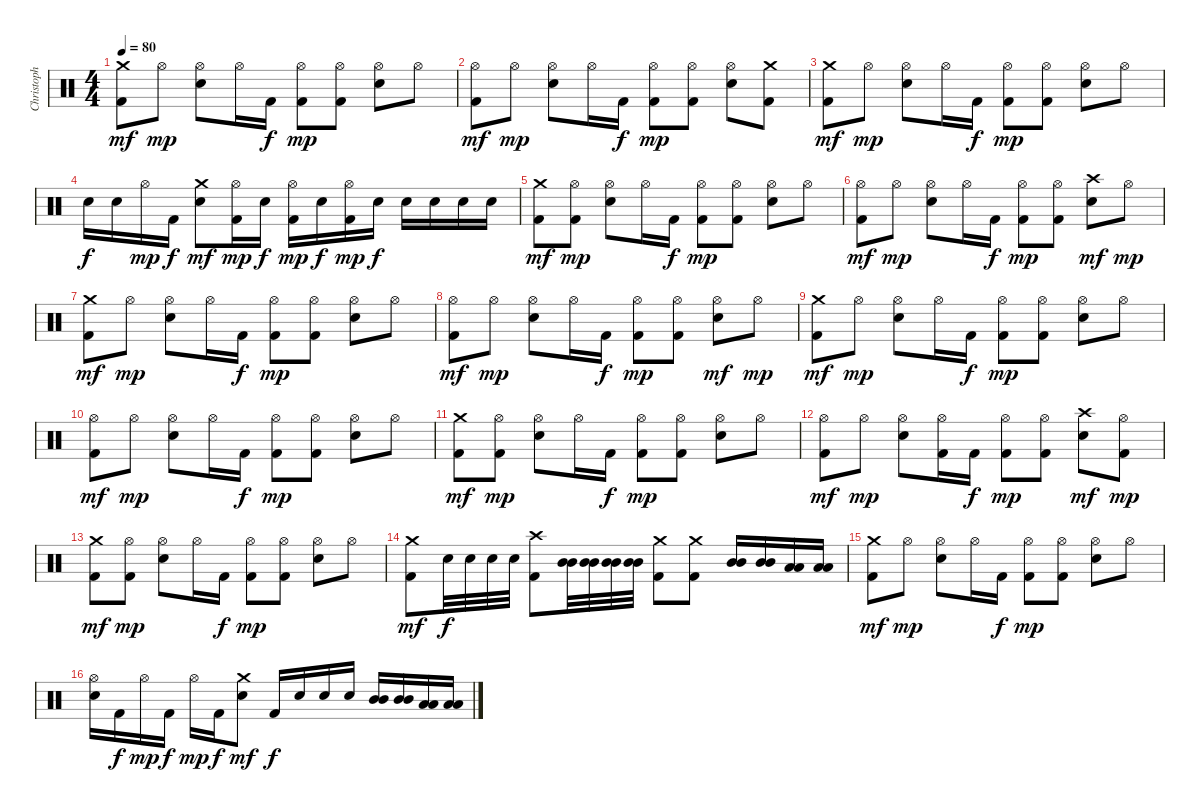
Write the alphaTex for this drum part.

\track ("Christoph Schneider // Drums" "Christoph ") {instrument percussion}
\staff {score}
\articulation defaults
\ts (4 4)
\tempo 80
\clef neutral
\ks c
("Crash medium (hit)" "Kick (hit) 2").8{dy mf} "Hi-Hat (open)".8{dy mp} ("Hi-Hat (open)" "Snare (hit) 2").8 "Hi-Hat (open)".16 "Kick (hit) 2".16{dy f} ("Hi-Hat (open)" "Kick (hit) 2").8{dy mp} ("Hi-Hat (open)" "Kick (hit) 2").8 ("Hi-Hat (open)" "Snare (hit) 2").8 "Hi-Hat (open)".8 |
("Hi-Hat (open)" "Kick (hit) 2").8{dy mf} "Hi-Hat (open)".8{dy mp} ("Hi-Hat (open)" "Snare (hit) 2").8 "Hi-Hat (open)".16 "Kick (hit) 2".16{dy f} ("Hi-Hat (open)" "Kick (hit) 2").8{dy mp} ("Hi-Hat (open)" "Kick (hit) 2").8 ("Hi-Hat (open)" "Snare (hit) 2").8 ("Crash medium (hit)" "Kick (hit) 2").8 |
("Crash medium (hit)" "Kick (hit) 2").8{dy mf} "Hi-Hat (open)".8{dy mp} ("Hi-Hat (open)" "Snare (hit) 2").8 "Hi-Hat (open)".16 "Kick (hit) 2".16{dy f} ("Hi-Hat (open)" "Kick (hit) 2").8{dy mp} ("Hi-Hat (open)" "Kick (hit) 2").8 ("Hi-Hat (open)" "Snare (hit) 2").8 "Hi-Hat (open)".8 |
"Snare (hit) 2".16{dy f} "Snare (hit) 2".16 "Hi-Hat (open)".16{dy mp} "Kick (hit) 2".16{dy f} ("Crash medium (hit)" "Snare (hit) 2").8{dy mf} ("Hi-Hat (open)" "Kick (hit) 2").16{dy mp} "Snare (hit) 2".16{dy f} ("Hi-Hat (open)" "Kick (hit) 2").16{dy mp} "Snare (hit) 2".16{dy f} ("Hi-Hat (open)" "Kick (hit) 2").16{dy mp} "Snare (hit) 2".16{dy f} "Snare (hit) 2".16 "Snare (hit) 2".16 "Snare (hit) 2".16 "Snare (hit) 2".16 |
("Crash medium (hit)" "Kick (hit) 2").8{dy mf} ("Hi-Hat (open)" "Kick (hit) 2").8{dy mp} ("Hi-Hat (open)" "Snare (hit) 2").8 "Hi-Hat (open)".16 "Kick (hit) 2".16{dy f} ("Hi-Hat (open)" "Kick (hit) 2").8{dy mp} ("Hi-Hat (open)" "Kick (hit) 2").8 ("Hi-Hat (open)" "Snare (hit) 2").8 "Hi-Hat (open)".8 |
("Hi-Hat (open)" "Kick (hit) 2").8{dy mf} "Hi-Hat (open)".8{dy mp} ("Hi-Hat (open)" "Snare (hit) 2").8 "Hi-Hat (open)".16 "Kick (hit) 2".16{dy f} ("Hi-Hat (open)" "Kick (hit) 2").8{dy mp} ("Hi-Hat (open)" "Kick (hit) 2").8 ("Crash high (hit)" "Snare (hit) 2").8{dy mf} "Hi-Hat (open)".8{dy mp} |
("Crash medium (hit)" "Kick (hit) 2").8{dy mf} "Hi-Hat (open)".8{dy mp} ("Hi-Hat (open)" "Snare (hit) 2").8 "Hi-Hat (open)".16 "Kick (hit) 2".16{dy f} ("Hi-Hat (open)" "Kick (hit) 2").8{dy mp} ("Hi-Hat (open)" "Kick (hit) 2").8 ("Hi-Hat (open)" "Snare (hit) 2").8 "Hi-Hat (open)".8 |
("Hi-Hat (open)" "Kick (hit) 2").8{dy mf} "Hi-Hat (open)".8{dy mp} ("Hi-Hat (open)" "Snare (hit) 2").8 "Hi-Hat (open)".16 "Kick (hit) 2".16{dy f} ("Hi-Hat (open)" "Kick (hit) 2").8{dy mp} ("Hi-Hat (open)" "Kick (hit) 2").8 ("Hi-Hat (open)" "Snare (hit) 2").8{dy mf} "Hi-Hat (open)".8{dy mp} |
("Crash medium (hit)" "Kick (hit) 2").8{dy mf} "Hi-Hat (open)".8{dy mp} ("Hi-Hat (open)" "Snare (hit) 2").8 "Hi-Hat (open)".16 "Kick (hit) 2".16{dy f} ("Hi-Hat (open)" "Kick (hit) 2").8{dy mp} ("Hi-Hat (open)" "Kick (hit) 2").8 ("Hi-Hat (open)" "Snare (hit) 2").8 "Hi-Hat (open)".8 |
("Hi-Hat (open)" "Kick (hit) 2").8{dy mf} "Hi-Hat (open)".8{dy mp} ("Hi-Hat (open)" "Snare (hit) 2").8 "Hi-Hat (open)".16 "Kick (hit) 2".16{dy f} ("Hi-Hat (open)" "Kick (hit) 2").8{dy mp} ("Hi-Hat (open)" "Kick (hit) 2").8 ("Hi-Hat (open)" "Snare (hit) 2").8 "Hi-Hat (open)".8 |
("Crash medium (hit)" "Kick (hit) 2").8{dy mf} ("Hi-Hat (open)" "Kick (hit) 2").8{dy mp} ("Hi-Hat (open)" "Snare (hit) 2").8 "Hi-Hat (open)".16 "Kick (hit) 2".16{dy f} ("Hi-Hat (open)" "Kick (hit) 2").8{dy mp} ("Hi-Hat (open)" "Kick (hit) 2").8 ("Hi-Hat (open)" "Snare (hit) 2").8 "Hi-Hat (open)".8 |
("Hi-Hat (open)" "Kick (hit) 2").8{dy mf} "Hi-Hat (open)".8{dy mp} ("Hi-Hat (open)" "Snare (hit) 2").8 ("Hi-Hat (open)" "Kick (hit) 2").16 "Kick (hit) 2".16{dy f} ("Hi-Hat (open)" "Kick (hit) 2").8{dy mp} ("Hi-Hat (open)" "Kick (hit) 2").8 ("Crash high (hit)" "Snare (hit) 2").8{dy mf} ("Hi-Hat (open)" "Kick (hit) 2").8{dy mp} |
("Crash medium (hit)" "Kick (hit) 2").8{dy mf} ("Hi-Hat (open)" "Kick (hit) 2").8{dy mp} ("Hi-Hat (open)" "Snare (hit) 2").8 "Hi-Hat (open)".16 "Kick (hit) 2".16{dy f} ("Hi-Hat (open)" "Kick (hit) 2").8{dy mp} ("Hi-Hat (open)" "Kick (hit) 2").8 ("Hi-Hat (open)" "Snare (hit) 2").8 "Hi-Hat (open)".8 |
("Crash medium (hit)" "Kick (hit) 2").8{dy mf} "Snare (hit) 2".32{dy f} "Snare (hit) 2".32 "Snare (hit) 2".32 "Snare (hit) 2".32 ("Crash high (hit)" "Kick (hit) 2").8 ("Mid Tom (hit)" "Mid Tom (hit)").32 ("Mid Tom (hit)" "Mid Tom (hit)").32 ("Mid Tom (hit)" "Mid Tom (hit)").32 ("Mid Tom (hit)" "Mid Tom (hit)").32 ("Crash medium (hit)" "Kick (hit) 2").8 ("Crash medium (hit)" "Kick (hit) 2").8 ("Mid Tom (hit)" "Mid Tom (hit)").16 ("Mid Tom (hit)" "Mid Tom (hit)").16 ("Low Tom (hit)" "Low Tom (hit)").16 ("Low Tom (hit)" "Low Tom (hit)").16 |
("Crash medium (hit)" "Kick (hit) 2").8{dy mf} "Hi-Hat (open)".8{dy mp} ("Hi-Hat (open)" "Snare (hit) 2").8 "Hi-Hat (open)".16 "Kick (hit) 2".16{dy f} ("Hi-Hat (open)" "Kick (hit) 2").8{dy mp} ("Hi-Hat (open)" "Kick (hit) 2").8 ("Hi-Hat (open)" "Snare (hit) 2").8 "Hi-Hat (open)".8 |
("Hi-Hat (open)" "Snare (hit) 2").16 "Kick (hit) 2".16{dy f} "Hi-Hat (open)".16{dy mp} "Kick (hit) 2".16{dy f} "Hi-Hat (open)".16{dy mp} "Kick (hit) 2".16{dy f} ("Crash medium (hit)" "Snare (hit) 2").8{dy mf} "Kick (hit) 2".16{dy f} "Snare (hit) 2".16 "Snare (hit) 2".16 "Snare (hit) 2".16 ("Mid Tom (hit)" "Mid Tom (hit)").16 ("Mid Tom (hit)" "Mid Tom (hit)").16 ("Low Tom (hit)" "Low Tom (hit)").16 ("Low Tom (hit)" "Low Tom (hit)").16
